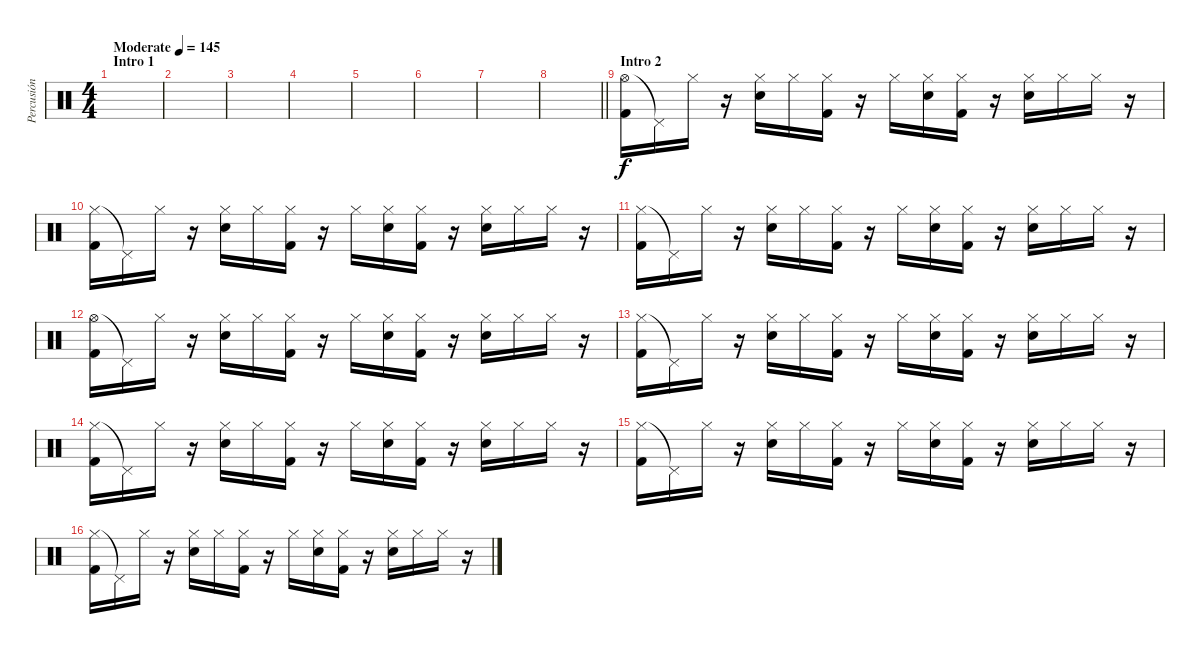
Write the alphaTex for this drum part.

\track ("Percusión" "Percusión") {instrument percussion}
\staff {score}
\articulation defaults
\ts (4 4)
\section ("" "Intro 1")
\tempo (145 "Moderate")
\clef neutral
\ks c
|
|
|
|
|
|
|
\barLineRight lightlight
|
\section ("" "Intro 2")
("Hi-Hat (open)" "Kick (hit) 2").16 "Pedal Hi-Hat (hit)"{t}.16 "Hi-Hat (closed)".16 r.16 ("Hi-Hat (closed)" "Electric Snare (hit)").16 "Hi-Hat (closed)".16 ("Hi-Hat (closed)" "Kick (hit) 2").16 r.16 "Hi-Hat (closed)".16 ("Hi-Hat (closed)" "Electric Snare (hit)").16 ("Hi-Hat (closed)" "Kick (hit) 2").16 r.16 ("Hi-Hat (closed)" "Electric Snare (hit)").16 "Hi-Hat (closed)".16 "Hi-Hat (closed)".16 r.16 |
("Hi-Hat (closed)" "Kick (hit) 2").16 "Pedal Hi-Hat (hit)"{t}.16 "Hi-Hat (closed)".16 r.16 ("Hi-Hat (closed)" "Electric Snare (hit)").16 "Hi-Hat (closed)".16 ("Hi-Hat (closed)" "Kick (hit) 2").16 r.16 "Hi-Hat (closed)".16 ("Hi-Hat (closed)" "Electric Snare (hit)").16 ("Hi-Hat (closed)" "Kick (hit) 2").16 r.16 ("Hi-Hat (closed)" "Electric Snare (hit)").16 "Hi-Hat (closed)".16 "Hi-Hat (closed)".16 r.16 |
("Hi-Hat (closed)" "Kick (hit) 2").16 "Pedal Hi-Hat (hit)"{t}.16 "Hi-Hat (closed)".16 r.16 ("Hi-Hat (closed)" "Electric Snare (hit)").16 "Hi-Hat (closed)".16 ("Hi-Hat (closed)" "Kick (hit) 2").16 r.16 "Hi-Hat (closed)".16 ("Hi-Hat (closed)" "Electric Snare (hit)").16 ("Hi-Hat (closed)" "Kick (hit) 2").16 r.16 ("Hi-Hat (closed)" "Electric Snare (hit)").16 "Hi-Hat (closed)".16 "Hi-Hat (closed)".16 r.16 |
("Hi-Hat (open)" "Kick (hit) 2").16 "Pedal Hi-Hat (hit)"{t}.16 "Hi-Hat (closed)".16 r.16 ("Hi-Hat (closed)" "Electric Snare (hit)").16 "Hi-Hat (closed)".16 ("Hi-Hat (closed)" "Kick (hit) 2").16 r.16 "Hi-Hat (closed)".16 ("Hi-Hat (closed)" "Electric Snare (hit)").16 ("Hi-Hat (closed)" "Kick (hit) 2").16 r.16 ("Hi-Hat (closed)" "Electric Snare (hit)").16 "Hi-Hat (closed)".16 "Hi-Hat (closed)".16 r.16 |
("Hi-Hat (closed)" "Kick (hit) 2").16 "Pedal Hi-Hat (hit)"{t}.16 "Hi-Hat (closed)".16 r.16 ("Hi-Hat (closed)" "Electric Snare (hit)").16 "Hi-Hat (closed)".16 ("Hi-Hat (closed)" "Kick (hit) 2").16 r.16 "Hi-Hat (closed)".16 ("Hi-Hat (closed)" "Electric Snare (hit)").16 ("Hi-Hat (closed)" "Kick (hit) 2").16 r.16 ("Hi-Hat (closed)" "Electric Snare (hit)").16 "Hi-Hat (closed)".16 "Hi-Hat (closed)".16 r.16 |
("Hi-Hat (closed)" "Kick (hit) 2").16 "Pedal Hi-Hat (hit)"{t}.16 "Hi-Hat (closed)".16 r.16 ("Hi-Hat (closed)" "Electric Snare (hit)").16 "Hi-Hat (closed)".16 ("Hi-Hat (closed)" "Kick (hit) 2").16 r.16 "Hi-Hat (closed)".16 ("Hi-Hat (closed)" "Electric Snare (hit)").16 ("Hi-Hat (closed)" "Kick (hit) 2").16 r.16 ("Hi-Hat (closed)" "Electric Snare (hit)").16 "Hi-Hat (closed)".16 "Hi-Hat (closed)".16 r.16 |
("Hi-Hat (closed)" "Kick (hit) 2").16 "Pedal Hi-Hat (hit)"{t}.16 "Hi-Hat (closed)".16 r.16 ("Hi-Hat (closed)" "Electric Snare (hit)").16 "Hi-Hat (closed)".16 ("Hi-Hat (closed)" "Kick (hit) 2").16 r.16 "Hi-Hat (closed)".16 ("Hi-Hat (closed)" "Electric Snare (hit)").16 ("Hi-Hat (closed)" "Kick (hit) 2").16 r.16 ("Hi-Hat (closed)" "Electric Snare (hit)").16 "Hi-Hat (closed)".16 "Hi-Hat (closed)".16 r.16 |
("Hi-Hat (closed)" "Kick (hit) 2").16 "Pedal Hi-Hat (hit)"{t}.16 "Hi-Hat (closed)".16 r.16 ("Hi-Hat (closed)" "Electric Snare (hit)").16 "Hi-Hat (closed)".16 ("Hi-Hat (closed)" "Kick (hit) 2").16 r.16 "Hi-Hat (closed)".16 ("Hi-Hat (closed)" "Electric Snare (hit)").16 ("Hi-Hat (closed)" "Kick (hit) 2").16 r.16 ("Hi-Hat (closed)" "Electric Snare (hit)").16 "Hi-Hat (closed)".16 "Hi-Hat (closed)".16 r.16
